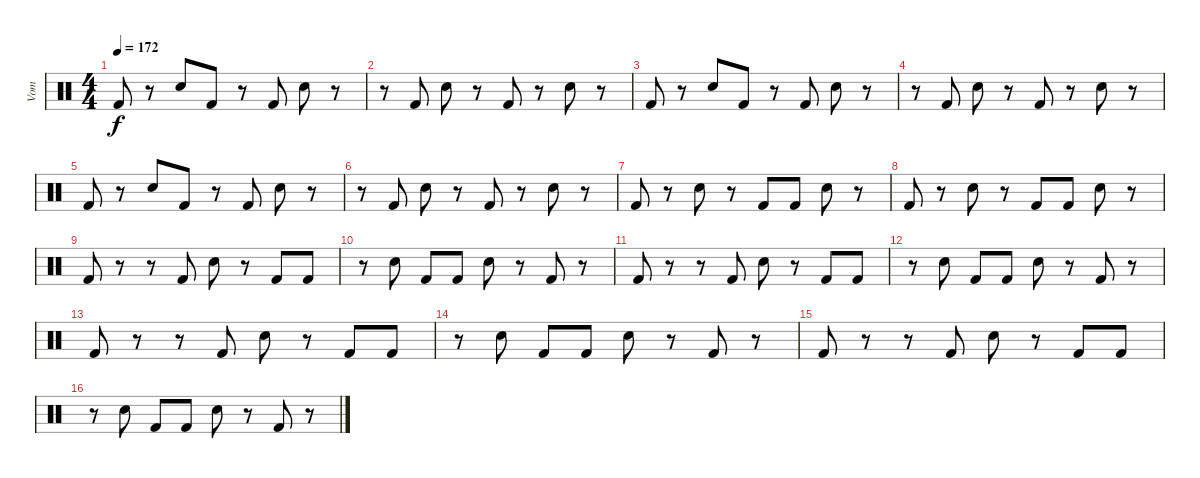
\track ("Vom" "Vom") {instrument percussion}
\staff {score}
\articulation defaults
\ts (4 4)
\tempo 172
\clef neutral
\ks c "Kick (hit) 2".8{dy f}
r.8 "Snare (hit) 2".8 "Kick (hit) 2".8 r.8 "Kick (hit) 2".8 "Snare (hit) 2".8 r.8 |
r.8 "Kick (hit) 2".8 "Snare (hit) 2".8 r.8 "Kick (hit) 2".8 r.8 "Snare (hit) 2".8 r.8 |
"Kick (hit) 2".8 r.8 "Snare (hit) 2".8 "Kick (hit) 2".8 r.8 "Kick (hit) 2".8 "Snare (hit) 2".8 r.8 |
r.8 "Kick (hit) 2".8 "Snare (hit) 2".8 r.8 "Kick (hit) 2".8 r.8 "Snare (hit) 2".8 r.8 |
"Kick (hit) 2".8 r.8 "Snare (hit) 2".8 "Kick (hit) 2".8 r.8 "Kick (hit) 2".8 "Snare (hit) 2".8 r.8 |
r.8 "Kick (hit) 2".8 "Snare (hit) 2".8 r.8 "Kick (hit) 2".8 r.8 "Snare (hit) 2".8 r.8 |
"Kick (hit) 2".8 r.8 "Snare (hit) 2".8 r.8 "Kick (hit) 2".8 "Kick (hit) 2".8 "Snare (hit) 2".8 r.8 |
"Kick (hit) 2".8 r.8 "Snare (hit) 2".8 r.8 "Kick (hit) 2".8 "Kick (hit) 2".8 "Snare (hit) 2".8 r.8 |
"Kick (hit) 2".8 r.8 r.8 "Kick (hit) 2".8 "Snare (hit) 2".8 r.8 "Kick (hit) 2".8 "Kick (hit) 2".8 |
r.8 "Snare (hit) 2".8 "Kick (hit) 2".8 "Kick (hit) 2".8 "Snare (hit) 2".8 r.8 "Kick (hit) 2".8 r.8 |
"Kick (hit) 2".8 r.8 r.8 "Kick (hit) 2".8 "Snare (hit) 2".8 r.8 "Kick (hit) 2".8 "Kick (hit) 2".8 |
r.8 "Snare (hit) 2".8 "Kick (hit) 2".8 "Kick (hit) 2".8 "Snare (hit) 2".8 r.8 "Kick (hit) 2".8 r.8 |
"Kick (hit) 2".8 r.8 r.8 "Kick (hit) 2".8 "Snare (hit) 2".8 r.8 "Kick (hit) 2".8 "Kick (hit) 2".8 |
r.8 "Snare (hit) 2".8 "Kick (hit) 2".8 "Kick (hit) 2".8 "Snare (hit) 2".8 r.8 "Kick (hit) 2".8 r.8 |
"Kick (hit) 2".8 r.8 r.8 "Kick (hit) 2".8 "Snare (hit) 2".8 r.8 "Kick (hit) 2".8 "Kick (hit) 2".8 |
r.8 "Snare (hit) 2".8 "Kick (hit) 2".8 "Kick (hit) 2".8 "Snare (hit) 2".8 r.8 "Kick (hit) 2".8 r.8
